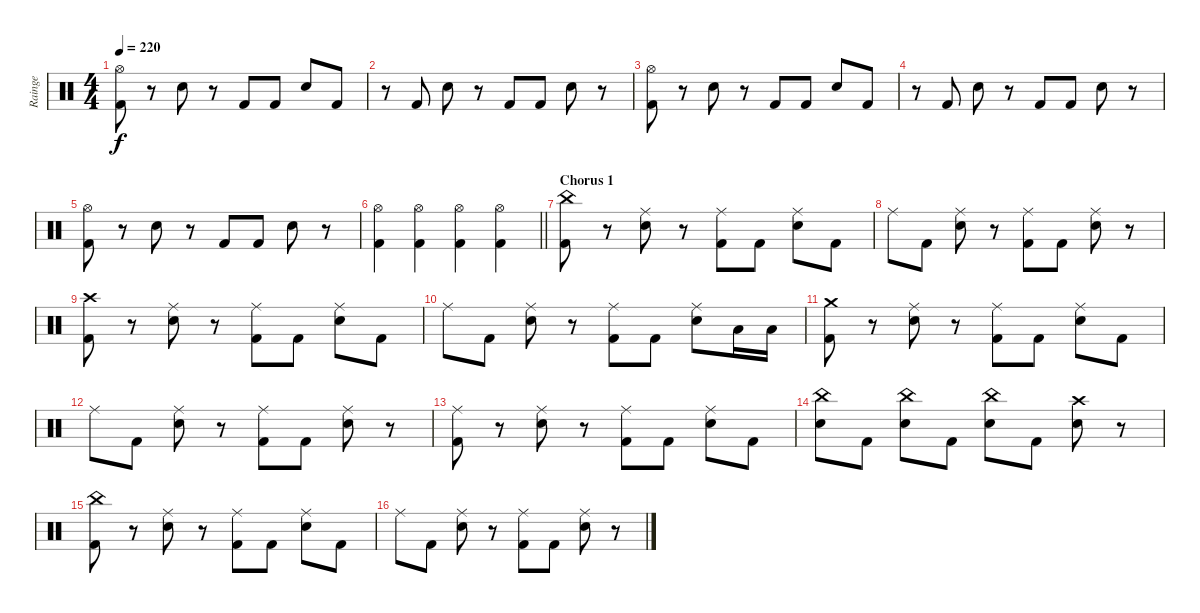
\track ("Rainge" "Rainge") {instrument percussion}
\staff {score}
\articulation defaults
\ts (4 4)
\tempo 220
\clef neutral
\ks c
("Hi-Hat (open)" "Kick (hit) 2").8{dy f} r.8 "Electric Snare (hit)".8 r.8 "Kick (hit) 2".8 "Kick (hit) 2".8 "Electric Snare (hit)".8 "Kick (hit) 2".8 |
r.8 "Kick (hit) 2".8 "Electric Snare (hit)".8 r.8 "Kick (hit) 2".8 "Kick (hit) 2".8 "Electric Snare (hit)".8 r.8 |
("Hi-Hat (open)" "Kick (hit) 2").8 r.8 "Electric Snare (hit)".8 r.8 "Kick (hit) 2".8 "Kick (hit) 2".8 "Electric Snare (hit)".8 "Kick (hit) 2".8 |
r.8 "Kick (hit) 2".8 "Electric Snare (hit)".8 r.8 "Kick (hit) 2".8 "Kick (hit) 2".8 "Electric Snare (hit)".8 r.8 |
("Hi-Hat (open)" "Kick (hit) 2").8 r.8 "Electric Snare (hit)".8 r.8 "Kick (hit) 2".8 "Kick (hit) 2".8 "Electric Snare (hit)".8 r.8 |
\barLineRight lightlight
("Hi-Hat (open)" "Kick (hit) 2").4 ("Hi-Hat (open)" "Kick (hit) 2").4 ("Hi-Hat (open)" "Kick (hit) 2").4 ("Hi-Hat (open)" "Kick (hit) 2").4 |
\section ("" "Chorus 1")
("China (hit)" "Kick (hit) 2").8 r.8 ("Ride (middle)" "Electric Snare (hit)").8 r.8 ("Ride (middle)" "Kick (hit) 2").8 "Kick (hit) 2".8 ("Ride (middle)" "Electric Snare (hit)").8 "Kick (hit) 2".8 |
"Ride (middle)".8 "Kick (hit) 2".8 ("Ride (middle)" "Electric Snare (hit)").8 r.8 ("Ride (middle)" "Kick (hit) 2").8 "Kick (hit) 2".8 ("Ride (middle)" "Electric Snare (hit)").8 r.8 |
("Crash high (hit)" "Kick (hit) 2").8 r.8 ("Ride (middle)" "Electric Snare (hit)").8 r.8 ("Ride (middle)" "Kick (hit) 2").8 "Kick (hit) 2".8 ("Ride (middle)" "Electric Snare (hit)").8 "Kick (hit) 2".8 |
"Ride (middle)".8 "Kick (hit) 2".8 ("Ride (middle)" "Electric Snare (hit)").8 r.8 ("Ride (middle)" "Kick (hit) 2").8 "Kick (hit) 2".8 ("Ride (middle)" "Electric Snare (hit)").8 "Low Tom (hit)".16 "Low Tom (hit)".16 |
("Crash medium (hit)" "Kick (hit) 2").8 r.8 ("Ride (middle)" "Electric Snare (hit)").8 r.8 ("Ride (middle)" "Kick (hit) 2").8 "Kick (hit) 2".8 ("Ride (middle)" "Electric Snare (hit)").8 "Kick (hit) 2".8 |
"Ride (middle)".8 "Kick (hit) 2".8 ("Ride (middle)" "Electric Snare (hit)").8 r.8 ("Ride (middle)" "Kick (hit) 2").8 "Kick (hit) 2".8 ("Ride (middle)" "Electric Snare (hit)").8 r.8 |
("Ride (middle)" "Kick (hit) 2").8 r.8 ("Ride (middle)" "Electric Snare (hit)").8 r.8 ("Ride (middle)" "Kick (hit) 2").8 "Kick (hit) 2".8 ("Ride (middle)" "Electric Snare (hit)").8 "Kick (hit) 2".8 |
("China (hit)" "Electric Snare (hit)").8 "Kick (hit) 2".8 ("China (hit)" "Electric Snare (hit)").8 "Kick (hit) 2".8 ("China (hit)" "Electric Snare (hit)").8 "Kick (hit) 2".8 ("Crash high (hit)" "Electric Snare (hit)").8 r.8 |
("China (hit)" "Kick (hit) 2").8 r.8 ("Ride (middle)" "Electric Snare (hit)").8 r.8 ("Ride (middle)" "Kick (hit) 2").8 "Kick (hit) 2".8 ("Ride (middle)" "Electric Snare (hit)").8 "Kick (hit) 2".8 |
"Ride (middle)".8 "Kick (hit) 2".8 ("Ride (middle)" "Electric Snare (hit)").8 r.8 ("Ride (middle)" "Kick (hit) 2").8 "Kick (hit) 2".8 ("Ride (middle)" "Electric Snare (hit)").8 r.8
